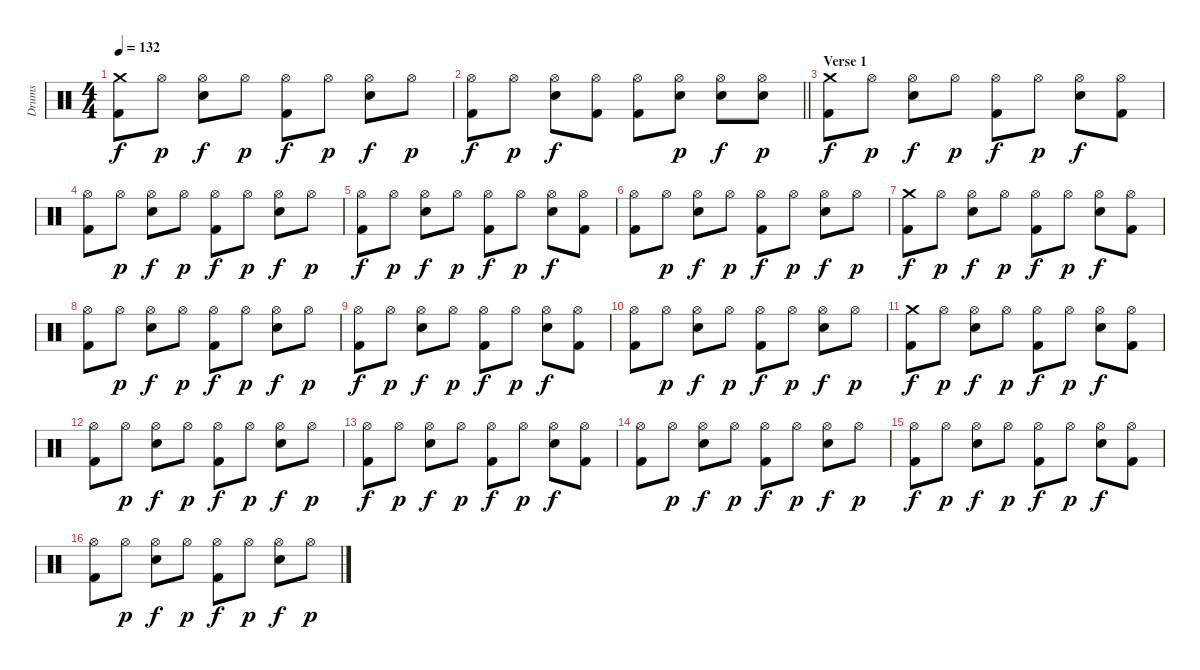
\track ("Drums" "Drums") {instrument percussion}
\staff {score}
\articulation defaults
\ts (4 4)
\tempo 132
\clef neutral
\ks c
("Crash medium (hit)" "Kick (hit) 2").8{dy f} "Hi-Hat (open)".8{dy p} ("Hi-Hat (open)" "Snare (hit) 2").8{dy f} "Hi-Hat (open)".8{dy p} ("Hi-Hat (open)" "Kick (hit) 2").8{dy f} "Hi-Hat (open)".8{dy p} ("Hi-Hat (open)" "Snare (hit) 2").8{dy f} "Hi-Hat (open)".8{dy p} |
\barLineRight lightlight
("Hi-Hat (open)" "Kick (hit) 2").8{dy f} "Hi-Hat (open)".8{dy p} ("Hi-Hat (open)" "Snare (hit) 2").8{dy f} ("Hi-Hat (open)" "Kick (hit) 2").8 ("Hi-Hat (open)" "Kick (hit) 2").8 ("Hi-Hat (open)" "Snare (hit) 2").8{dy p} ("Hi-Hat (open)" "Snare (hit) 2").8{dy f} ("Hi-Hat (open)" "Snare (hit) 2").8{dy p} |
\section ("" "Verse 1")
("Crash medium (hit)" "Kick (hit) 2").8{dy f} "Hi-Hat (open)".8{dy p} ("Hi-Hat (open)" "Snare (hit) 2").8{dy f} "Hi-Hat (open)".8{dy p} ("Hi-Hat (open)" "Kick (hit) 2").8{dy f} "Hi-Hat (open)".8{dy p} ("Hi-Hat (open)" "Snare (hit) 2").8{dy f} ("Hi-Hat (open)" "Kick (hit) 2").8 |
("Hi-Hat (open)" "Kick (hit) 2").8 "Hi-Hat (open)".8{dy p} ("Hi-Hat (open)" "Snare (hit) 2").8{dy f} "Hi-Hat (open)".8{dy p} ("Hi-Hat (open)" "Kick (hit) 2").8{dy f} "Hi-Hat (open)".8{dy p} ("Hi-Hat (open)" "Snare (hit) 2").8{dy f} "Hi-Hat (open)".8{dy p} |
("Hi-Hat (open)" "Kick (hit) 2").8{dy f} "Hi-Hat (open)".8{dy p} ("Hi-Hat (open)" "Snare (hit) 2").8{dy f} "Hi-Hat (open)".8{dy p} ("Hi-Hat (open)" "Kick (hit) 2").8{dy f} "Hi-Hat (open)".8{dy p} ("Hi-Hat (open)" "Snare (hit) 2").8{dy f} ("Hi-Hat (open)" "Kick (hit) 2").8 |
("Hi-Hat (open)" "Kick (hit) 2").8 "Hi-Hat (open)".8{dy p} ("Hi-Hat (open)" "Snare (hit) 2").8{dy f} "Hi-Hat (open)".8{dy p} ("Hi-Hat (open)" "Kick (hit) 2").8{dy f} "Hi-Hat (open)".8{dy p} ("Hi-Hat (open)" "Snare (hit) 2").8{dy f} "Hi-Hat (open)".8{dy p} |
("Crash medium (hit)" "Kick (hit) 2").8{dy f} "Hi-Hat (open)".8{dy p} ("Hi-Hat (open)" "Snare (hit) 2").8{dy f} "Hi-Hat (open)".8{dy p} ("Hi-Hat (open)" "Kick (hit) 2").8{dy f} "Hi-Hat (open)".8{dy p} ("Hi-Hat (open)" "Snare (hit) 2").8{dy f} ("Hi-Hat (open)" "Kick (hit) 2").8 |
("Hi-Hat (open)" "Kick (hit) 2").8 "Hi-Hat (open)".8{dy p} ("Hi-Hat (open)" "Snare (hit) 2").8{dy f} "Hi-Hat (open)".8{dy p} ("Hi-Hat (open)" "Kick (hit) 2").8{dy f} "Hi-Hat (open)".8{dy p} ("Hi-Hat (open)" "Snare (hit) 2").8{dy f} "Hi-Hat (open)".8{dy p} |
("Hi-Hat (open)" "Kick (hit) 2").8{dy f} "Hi-Hat (open)".8{dy p} ("Hi-Hat (open)" "Snare (hit) 2").8{dy f} "Hi-Hat (open)".8{dy p} ("Hi-Hat (open)" "Kick (hit) 2").8{dy f} "Hi-Hat (open)".8{dy p} ("Hi-Hat (open)" "Snare (hit) 2").8{dy f} ("Hi-Hat (open)" "Kick (hit) 2").8 |
("Hi-Hat (open)" "Kick (hit) 2").8 "Hi-Hat (open)".8{dy p} ("Hi-Hat (open)" "Snare (hit) 2").8{dy f} "Hi-Hat (open)".8{dy p} ("Hi-Hat (open)" "Kick (hit) 2").8{dy f} "Hi-Hat (open)".8{dy p} ("Hi-Hat (open)" "Snare (hit) 2").8{dy f} "Hi-Hat (open)".8{dy p} |
("Crash medium (hit)" "Kick (hit) 2").8{dy f} "Hi-Hat (open)".8{dy p} ("Hi-Hat (open)" "Snare (hit) 2").8{dy f} "Hi-Hat (open)".8{dy p} ("Hi-Hat (open)" "Kick (hit) 2").8{dy f} "Hi-Hat (open)".8{dy p} ("Hi-Hat (open)" "Snare (hit) 2").8{dy f} ("Hi-Hat (open)" "Kick (hit) 2").8 |
("Hi-Hat (open)" "Kick (hit) 2").8 "Hi-Hat (open)".8{dy p} ("Hi-Hat (open)" "Snare (hit) 2").8{dy f} "Hi-Hat (open)".8{dy p} ("Hi-Hat (open)" "Kick (hit) 2").8{dy f} "Hi-Hat (open)".8{dy p} ("Hi-Hat (open)" "Snare (hit) 2").8{dy f} "Hi-Hat (open)".8{dy p} |
("Hi-Hat (open)" "Kick (hit) 2").8{dy f} "Hi-Hat (open)".8{dy p} ("Hi-Hat (open)" "Snare (hit) 2").8{dy f} "Hi-Hat (open)".8{dy p} ("Hi-Hat (open)" "Kick (hit) 2").8{dy f} "Hi-Hat (open)".8{dy p} ("Hi-Hat (open)" "Snare (hit) 2").8{dy f} ("Hi-Hat (open)" "Kick (hit) 2").8 |
("Hi-Hat (open)" "Kick (hit) 2").8 "Hi-Hat (open)".8{dy p} ("Hi-Hat (open)" "Snare (hit) 2").8{dy f} "Hi-Hat (open)".8{dy p} ("Hi-Hat (open)" "Kick (hit) 2").8{dy f} "Hi-Hat (open)".8{dy p} ("Hi-Hat (open)" "Snare (hit) 2").8{dy f} "Hi-Hat (open)".8{dy p} |
("Hi-Hat (open)" "Kick (hit) 2").8{dy f} "Hi-Hat (open)".8{dy p} ("Hi-Hat (open)" "Snare (hit) 2").8{dy f} "Hi-Hat (open)".8{dy p} ("Hi-Hat (open)" "Kick (hit) 2").8{dy f} "Hi-Hat (open)".8{dy p} ("Hi-Hat (open)" "Snare (hit) 2").8{dy f} ("Hi-Hat (open)" "Kick (hit) 2").8 |
("Hi-Hat (open)" "Kick (hit) 2").8 "Hi-Hat (open)".8{dy p} ("Hi-Hat (open)" "Snare (hit) 2").8{dy f} "Hi-Hat (open)".8{dy p} ("Hi-Hat (open)" "Kick (hit) 2").8{dy f} "Hi-Hat (open)".8{dy p} ("Hi-Hat (open)" "Snare (hit) 2").8{dy f} "Hi-Hat (open)".8{dy p}
